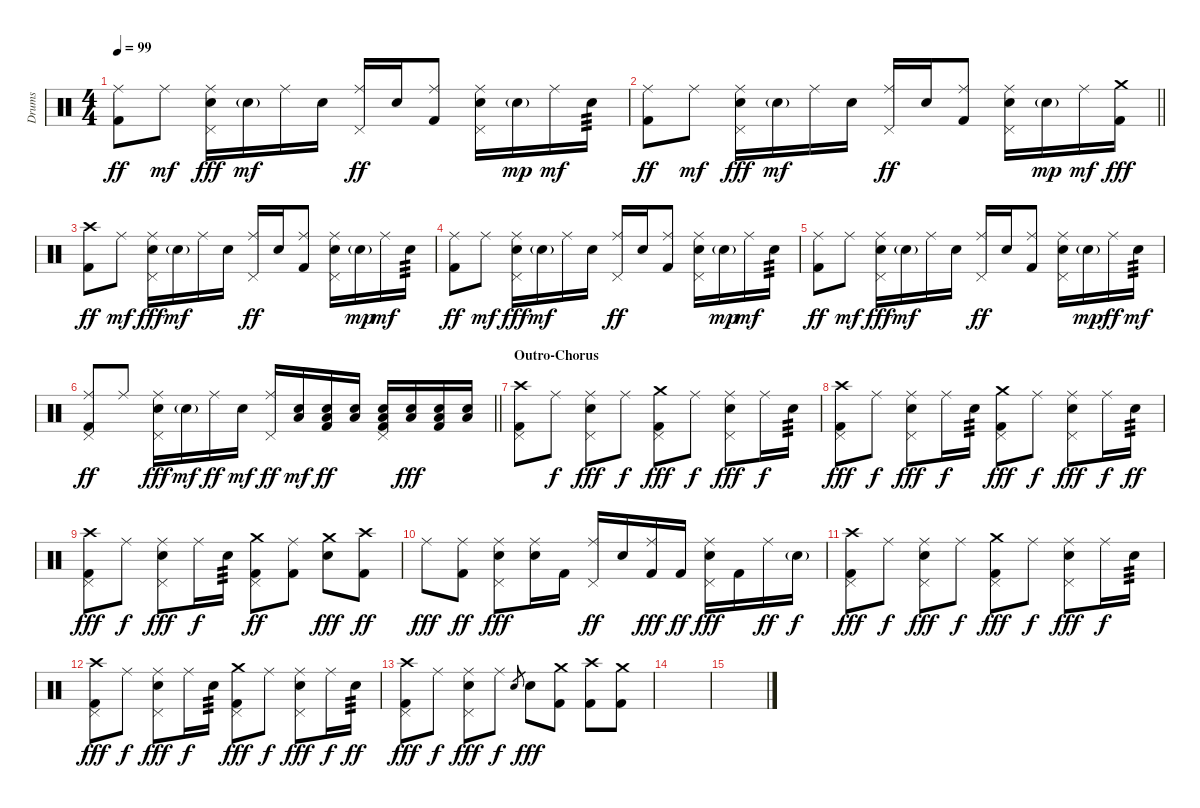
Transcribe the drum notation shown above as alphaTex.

\track ("Drums" "Drums") {instrument percussion}
\staff {score}
\articulation defaults
\ts (4 4)
\tempo 99
\clef neutral
\ks c
("Ride (middle)" "Kick (hit) 2").8{dy ff} "Ride (middle)".8{dy mf} ("Ride (middle)" "Pedal Hi-Hat (hit)" "Electric Snare (hit)").16{dy fff} "Electric Snare (hit)"{g}.16{dy mf} "Ride (middle)".16 "Electric Snare (hit)".16 ("Ride (middle)" "Pedal Hi-Hat (hit)").16{dy ff} "Electric Snare (hit)".16 ("Ride (middle)" "Kick (hit) 2").8 ("Ride (middle)" "Pedal Hi-Hat (hit)" "Electric Snare (hit)").16 "Electric Snare (hit)"{g}.16{dy mp} "Ride (middle)".16{dy mf} "Electric Snare (hit)".16{tp 3} |
\barLineRight lightlight
("Ride (middle)" "Kick (hit) 2").8{dy ff} "Ride (middle)".8{dy mf} ("Ride (middle)" "Pedal Hi-Hat (hit)" "Electric Snare (hit)").16{dy fff} "Electric Snare (hit)"{g}.16{dy mf} "Ride (middle)".16 "Electric Snare (hit)".16 ("Ride (middle)" "Pedal Hi-Hat (hit)").16{dy ff} "Electric Snare (hit)".16 ("Ride (middle)" "Kick (hit) 2").8 ("Ride (middle)" "Pedal Hi-Hat (hit)" "Electric Snare (hit)").16 "Electric Snare (hit)"{g}.16{dy mp} "Ride (middle)".16{dy mf} ("Crash medium (hit)" "Kick (hit) 2").16{dy fff} |
("Crash high (hit)" "Kick (hit) 2").8{dy ff} "Ride (middle)".8{dy mf} ("Ride (middle)" "Pedal Hi-Hat (hit)" "Electric Snare (hit)").16{dy fff} "Electric Snare (hit)"{g}.16{dy mf} "Ride (middle)".16 "Electric Snare (hit)".16 ("Ride (middle)" "Pedal Hi-Hat (hit)").16{dy ff} "Electric Snare (hit)".16 ("Ride (middle)" "Kick (hit) 2").8 ("Ride (middle)" "Pedal Hi-Hat (hit)" "Electric Snare (hit)").16 "Electric Snare (hit)"{g}.16{dy mp} "Ride (middle)".16{dy mf} "Electric Snare (hit)".16{tp 3} |
("Ride (middle)" "Kick (hit) 2").8{dy ff} "Ride (middle)".8{dy mf} ("Ride (middle)" "Pedal Hi-Hat (hit)" "Electric Snare (hit)").16{dy fff} "Electric Snare (hit)"{g}.16{dy mf} "Ride (middle)".16 "Electric Snare (hit)".16 ("Ride (middle)" "Pedal Hi-Hat (hit)").16{dy ff} "Electric Snare (hit)".16 ("Ride (middle)" "Kick (hit) 2").8 ("Ride (middle)" "Pedal Hi-Hat (hit)" "Electric Snare (hit)").16 "Electric Snare (hit)"{g}.16{dy mp} "Ride (middle)".16{dy mf} "Electric Snare (hit)".16{tp 3} |
("Ride (middle)" "Kick (hit) 2").8{dy ff} "Ride (middle)".8{dy mf} ("Ride (middle)" "Pedal Hi-Hat (hit)" "Electric Snare (hit)").16{dy fff} "Electric Snare (hit)"{g}.16{dy mf} "Ride (middle)".16 "Electric Snare (hit)".16 ("Ride (middle)" "Pedal Hi-Hat (hit)").16{dy ff} "Electric Snare (hit)".16 ("Ride (middle)" "Kick (hit) 2").8 ("Ride (middle)" "Pedal Hi-Hat (hit)" "Electric Snare (hit)").16 "Electric Snare (hit)"{g}.16{dy mp} "Ride (middle)".16{dy ff} "Electric Snare (hit)".16{tp 3 dy mf} |
\barLineRight lightlight
("Ride (middle)" "Pedal Hi-Hat (hit)" "Kick (hit) 2").8{dy ff} "Ride (middle)".8 ("Ride (middle)" "Pedal Hi-Hat (hit)" "Electric Snare (hit)").16{dy fff} "Electric Snare (hit)"{g}.16{dy mf} "Ride (middle)".16{dy ff} "Electric Snare (hit)".16{dy mf} ("Ride (middle)" "Pedal Hi-Hat (hit)").16{dy ff} ("Low Tom (hit)" "Electric Snare (hit)").16{dy mf} ("Low Tom (hit)" "Electric Snare (hit)" "Kick (hit) 2").16{dy ff} ("Low Tom (hit)" "Electric Snare (hit)").16 ("Pedal Hi-Hat (hit)" "Low Tom (hit)" "Electric Snare (hit)" "Kick (hit) 2").16 ("Low Tom (hit)" "Electric Snare (hit)").16{dy fff} ("Low Tom (hit)" "Electric Snare (hit)" "Kick (hit) 2").16 ("Low Tom (hit)" "Electric Snare (hit)").16 |
\section ("" "Outro-Chorus")
("Crash high (hit)" "Pedal Hi-Hat (hit)" "Kick (hit) 2").8 "Ride (middle)".8{dy f} ("Ride (middle)" "Pedal Hi-Hat (hit)" "Electric Snare (hit)").8{dy fff} "Ride (middle)".8{dy f} ("Crash medium (hit)" "Pedal Hi-Hat (hit)" "Kick (hit) 2").8{dy fff} "Ride (middle)".8{dy f} ("Ride (middle)" "Pedal Hi-Hat (hit)" "Electric Snare (hit)").8{dy fff} "Ride (middle)".16{dy f} "Electric Snare (hit)".16{tp 3} |
("Crash high (hit)" "Pedal Hi-Hat (hit)" "Kick (hit) 2").8{dy fff} "Ride (middle)".8{dy f} ("Ride (middle)" "Pedal Hi-Hat (hit)" "Electric Snare (hit)").8{dy fff} "Ride (middle)".16{dy f} "Electric Snare (hit)".16{tp 3} ("Crash medium (hit)" "Pedal Hi-Hat (hit)" "Kick (hit) 2").8{dy fff} "Ride (middle)".8{dy f} ("Ride (middle)" "Pedal Hi-Hat (hit)" "Electric Snare (hit)").8{dy fff} "Ride (middle)".16{dy f} "Electric Snare (hit)".16{tp 3 dy ff} |
("Crash high (hit)" "Pedal Hi-Hat (hit)" "Kick (hit) 2").8{dy fff} "Ride (middle)".8{dy f} ("Ride (middle)" "Pedal Hi-Hat (hit)" "Electric Snare (hit)").8{dy fff} "Ride (middle)".16{dy f} "Electric Snare (hit)".16{tp 3} ("Crash medium (hit)" "Pedal Hi-Hat (hit)" "Kick (hit) 2").8{dy ff} ("Ride (middle)" "Kick (hit) 2").8 ("Crash medium (hit)" "Electric Snare (hit)").8{dy fff} ("Crash high (hit)" "Kick (hit) 2").8{dy ff} |
"Ride (middle)".8{dy fff} ("Ride (middle)" "Kick (hit) 2").8{dy ff} ("Ride (middle)" "Pedal Hi-Hat (hit)" "Electric Snare (hit)").8{dy fff} ("Ride (middle)" "Electric Snare (hit)").16 "Kick (hit) 2".16 ("Ride (middle)" "Pedal Hi-Hat (hit)").16{dy ff} "Electric Snare (hit)".16 ("Ride (middle)" "Kick (hit) 2").16{dy fff} "Kick (hit) 2".16{dy ff} ("Ride (middle)" "Pedal Hi-Hat (hit)" "Electric Snare (hit)").16{dy fff} "Kick (hit) 2".16 "Ride (middle)".16{dy ff} "Electric Snare (hit)"{g}.16{dy f} |
("Crash high (hit)" "Pedal Hi-Hat (hit)" "Kick (hit) 2").8{dy fff} "Ride (middle)".8{dy f} ("Ride (middle)" "Pedal Hi-Hat (hit)" "Electric Snare (hit)").8{dy fff} "Ride (middle)".8{dy f} ("Crash medium (hit)" "Pedal Hi-Hat (hit)" "Kick (hit) 2").8{dy fff} "Ride (middle)".8{dy f} ("Ride (middle)" "Pedal Hi-Hat (hit)" "Electric Snare (hit)").8{dy fff} "Ride (middle)".16{dy f} "Electric Snare (hit)".16{tp 3} |
("Crash high (hit)" "Pedal Hi-Hat (hit)" "Kick (hit) 2").8{dy fff} "Ride (middle)".8{dy f} ("Ride (middle)" "Pedal Hi-Hat (hit)" "Electric Snare (hit)").8{dy fff} "Ride (middle)".16{dy f} "Electric Snare (hit)".16{tp 3} ("Crash medium (hit)" "Pedal Hi-Hat (hit)" "Kick (hit) 2").8{dy fff} "Ride (middle)".8{dy f} ("Ride (middle)" "Pedal Hi-Hat (hit)" "Electric Snare (hit)").8{dy fff} "Ride (middle)".16{dy f} "Electric Snare (hit)".16{tp 3 dy ff} |
("Crash high (hit)" "Pedal Hi-Hat (hit)" "Kick (hit) 2").8{dy fff} "Ride (middle)".8{dy f} ("Ride (middle)" "Pedal Hi-Hat (hit)" "Electric Snare (hit)").8{dy fff} "Ride (middle)".8{dy f} "Electric Snare (hit)".8{gr} "Electric Snare (hit)".8{dy fff} ("Crash medium (hit)" "Kick (hit) 2").8 ("Crash high (hit)" "Kick (hit) 2").8 ("Crash medium (hit)" "Kick (hit) 2").8 |
|
\ks aminor
